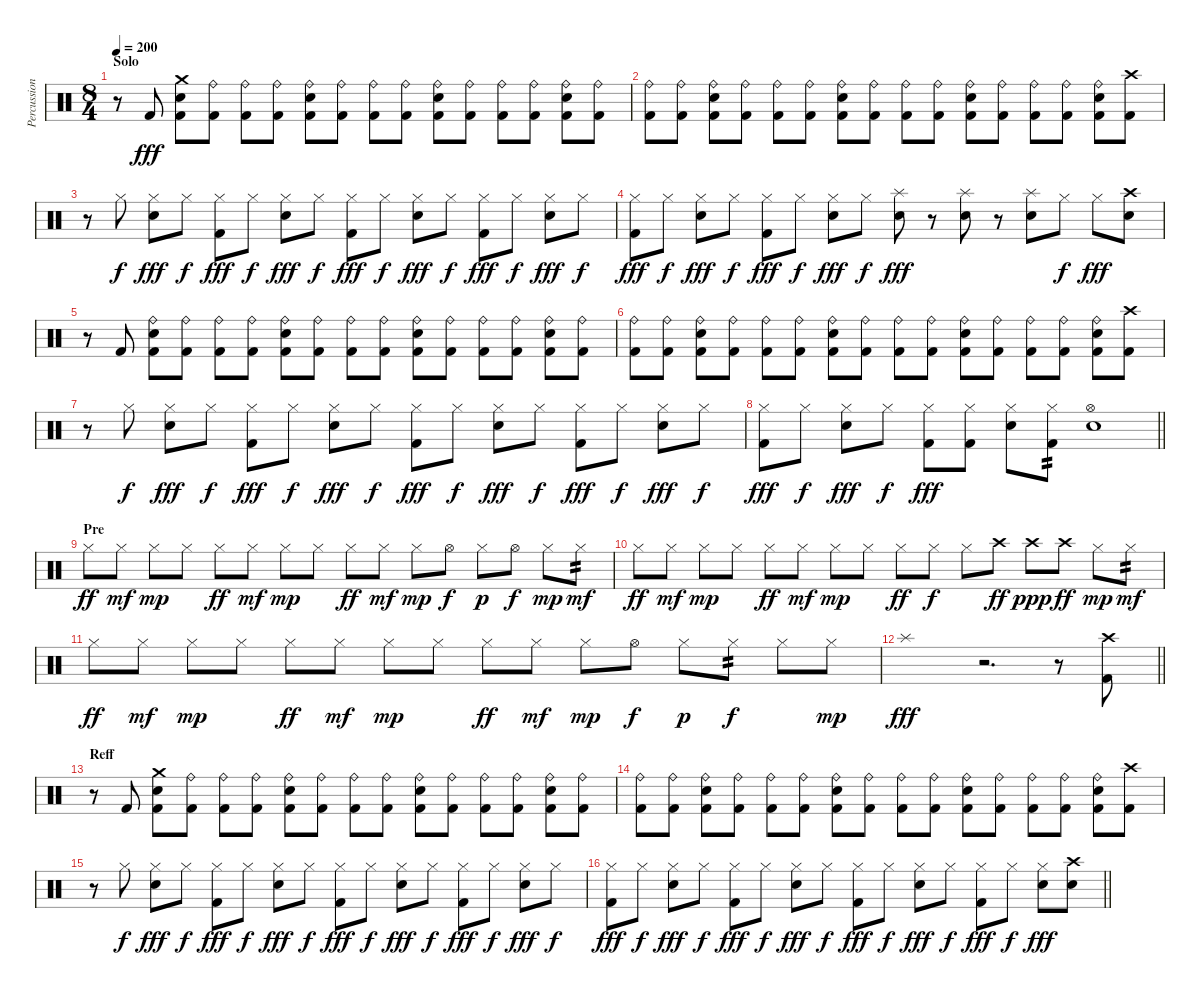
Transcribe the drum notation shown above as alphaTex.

\track ("Percussion" "Percussion") {instrument percussion}
\staff {score}
\articulation defaults
\ts (8 4)
\section ("" "Solo")
\tempo 200
\clef neutral
\ks c
r.8{dy fff} "Kick (hit) 2".8 ("Crash medium (hit)" "Electric Snare (hit)" "Kick (hit) 2").8 ("Ride (bell)" "Kick (hit) 2").8 ("Ride (bell)" "Kick (hit) 2").8 ("Ride (bell)" "Kick (hit) 2").8 ("Ride (bell)" "Electric Snare (hit)" "Kick (hit) 2").8 ("Ride (bell)" "Kick (hit) 2").8 ("Ride (bell)" "Kick (hit) 2").8 ("Ride (bell)" "Kick (hit) 2").8 ("Ride (bell)" "Electric Snare (hit)" "Kick (hit) 2").8 ("Ride (bell)" "Kick (hit) 2").8 ("Ride (bell)" "Kick (hit) 2").8 ("Ride (bell)" "Kick (hit) 2").8 ("Ride (bell)" "Electric Snare (hit)" "Kick (hit) 2").8 ("Ride (bell)" "Kick (hit) 2").8 |
("Ride (bell)" "Kick (hit) 2").8 ("Ride (bell)" "Kick (hit) 2").8 ("Ride (bell)" "Electric Snare (hit)" "Kick (hit) 2").8 ("Ride (bell)" "Kick (hit) 2").8 ("Ride (bell)" "Kick (hit) 2").8 ("Ride (bell)" "Kick (hit) 2").8 ("Ride (bell)" "Electric Snare (hit)" "Kick (hit) 2").8 ("Ride (bell)" "Kick (hit) 2").8 ("Ride (bell)" "Kick (hit) 2").8 ("Ride (bell)" "Kick (hit) 2").8 ("Ride (bell)" "Electric Snare (hit)" "Kick (hit) 2").8 ("Ride (bell)" "Kick (hit) 2").8 ("Ride (bell)" "Kick (hit) 2").8 ("Ride (bell)" "Kick (hit) 2").8 ("Ride (bell)" "Electric Snare (hit)" "Kick (hit) 2").8 ("Crash high (hit)" "Kick (hit) 2").8 |
r.8 "Hi-Hat (closed)".8{dy f} ("Hi-Hat (closed)" "Electric Snare (hit)").8{dy fff} "Hi-Hat (closed)".8{dy f} ("Hi-Hat (closed)" "Kick (hit) 2").8{dy fff} "Hi-Hat (closed)".8{dy f} ("Hi-Hat (closed)" "Electric Snare (hit)").8{dy fff} "Hi-Hat (closed)".8{dy f} ("Hi-Hat (closed)" "Kick (hit) 2").8{dy fff} "Hi-Hat (closed)".8{dy f} ("Hi-Hat (closed)" "Electric Snare (hit)").8{dy fff} "Hi-Hat (closed)".8{dy f} ("Hi-Hat (closed)" "Kick (hit) 2").8{dy fff} "Hi-Hat (closed)".8{dy f} ("Hi-Hat (closed)" "Electric Snare (hit)").8{dy fff} "Hi-Hat (closed)".8{dy f} |
("Hi-Hat (closed)" "Kick (hit) 2").8{dy fff} "Hi-Hat (closed)".8{dy f} ("Hi-Hat (closed)" "Electric Snare (hit)").8{dy fff} "Hi-Hat (closed)".8{dy f} ("Hi-Hat (closed)" "Kick (hit) 2").8{dy fff} "Hi-Hat (closed)".8{dy f} ("Hi-Hat (closed)" "Electric Snare (hit)").8{dy fff} "Hi-Hat (closed)".8{dy f} ("Splash (hit)" "Electric Snare (hit)").8{dy fff} r.8 ("Splash (hit)" "Electric Snare (hit)").8 r.8 ("Splash (hit)" "Electric Snare (hit)").8 "Hi-Hat (closed)".8{dy f} "Hi-Hat (closed)".8{dy fff} ("Crash high (hit)" "Electric Snare (hit)").8 |
r.8 "Kick (hit) 2".8 ("Ride (bell)" "Electric Snare (hit)" "Kick (hit) 2").8 ("Ride (bell)" "Kick (hit) 2").8 ("Ride (bell)" "Kick (hit) 2").8 ("Ride (bell)" "Kick (hit) 2").8 ("Ride (bell)" "Electric Snare (hit)" "Kick (hit) 2").8 ("Ride (bell)" "Kick (hit) 2").8 ("Ride (bell)" "Kick (hit) 2").8 ("Ride (bell)" "Kick (hit) 2").8 ("Ride (bell)" "Electric Snare (hit)" "Kick (hit) 2").8 ("Ride (bell)" "Kick (hit) 2").8 ("Ride (bell)" "Kick (hit) 2").8 ("Ride (bell)" "Kick (hit) 2").8 ("Ride (bell)" "Electric Snare (hit)" "Kick (hit) 2").8 ("Ride (bell)" "Kick (hit) 2").8 |
("Ride (bell)" "Kick (hit) 2").8 ("Ride (bell)" "Kick (hit) 2").8 ("Ride (bell)" "Electric Snare (hit)" "Kick (hit) 2").8 ("Ride (bell)" "Kick (hit) 2").8 ("Ride (bell)" "Kick (hit) 2").8 ("Ride (bell)" "Kick (hit) 2").8 ("Ride (bell)" "Electric Snare (hit)" "Kick (hit) 2").8 ("Ride (bell)" "Kick (hit) 2").8 ("Ride (bell)" "Kick (hit) 2").8 ("Ride (bell)" "Kick (hit) 2").8 ("Ride (bell)" "Electric Snare (hit)" "Kick (hit) 2").8 ("Ride (bell)" "Kick (hit) 2").8 ("Ride (bell)" "Kick (hit) 2").8 ("Ride (bell)" "Kick (hit) 2").8 ("Ride (bell)" "Electric Snare (hit)" "Kick (hit) 2").8 ("Crash high (hit)" "Kick (hit) 2").8 |
r.8 "Hi-Hat (closed)".8{dy f} ("Hi-Hat (closed)" "Electric Snare (hit)").8{dy fff} "Hi-Hat (closed)".8{dy f} ("Hi-Hat (closed)" "Kick (hit) 2").8{dy fff} "Hi-Hat (closed)".8{dy f} ("Hi-Hat (closed)" "Electric Snare (hit)").8{dy fff} "Hi-Hat (closed)".8{dy f} ("Hi-Hat (closed)" "Kick (hit) 2").8{dy fff} "Hi-Hat (closed)".8{dy f} ("Hi-Hat (closed)" "Electric Snare (hit)").8{dy fff} "Hi-Hat (closed)".8{dy f} ("Hi-Hat (closed)" "Kick (hit) 2").8{dy fff} "Hi-Hat (closed)".8{dy f} ("Hi-Hat (closed)" "Electric Snare (hit)").8{dy fff} "Hi-Hat (closed)".8{dy f} |
\barLineRight lightlight
("Hi-Hat (closed)" "Kick (hit) 2").8{dy fff} "Hi-Hat (closed)".8{dy f} ("Hi-Hat (closed)" "Electric Snare (hit)").8{dy fff} "Hi-Hat (closed)".8{dy f} ("Hi-Hat (closed)" "Kick (hit) 2").8{dy fff} ("Hi-Hat (closed)" "Kick (hit) 2").8 ("Hi-Hat (closed)" "Electric Snare (hit)").8 ("Hi-Hat (closed)" "Kick (hit) 2").8{tp 2} ("Hi-Hat (open)" "Electric Snare (hit)").1 |
\section ("" "Pre")
"Hi-Hat (closed)".8{dy ff} "Hi-Hat (closed)".8{dy mf} "Hi-Hat (closed)".8{dy mp} "Hi-Hat (closed)".8 "Hi-Hat (closed)".8{dy ff} "Hi-Hat (closed)".8{dy mf} "Hi-Hat (closed)".8{dy mp} "Hi-Hat (closed)".8 "Hi-Hat (closed)".8{dy ff} "Hi-Hat (closed)".8{dy mf} "Hi-Hat (closed)".8{dy mp} "Hi-Hat (open)".8{dy f} "Hi-Hat (closed)".8{dy p} "Hi-Hat (open)".8{dy f} "Hi-Hat (closed)".8{dy mp} "Hi-Hat (closed)".8{tp 2 dy mf} |
"Hi-Hat (closed)".8{dy ff} "Hi-Hat (closed)".8{dy mf} "Hi-Hat (closed)".8{dy mp} "Hi-Hat (closed)".8 "Hi-Hat (closed)".8{dy ff} "Hi-Hat (closed)".8{dy mf} "Hi-Hat (closed)".8{dy mp} "Hi-Hat (closed)".8 "Hi-Hat (closed)".8{dy ff} "Hi-Hat (closed)".8{dy f} "Hi-Hat (closed)".8 "Crash high (hit)".8{dy ff} "Crash high (hit)".8{dy ppp} "Crash high (hit)".8{dy ff} "Hi-Hat (closed)".8{dy mp} "Hi-Hat (closed)".8{tp 2 dy mf} |
"Hi-Hat (closed)".8{dy ff} "Hi-Hat (closed)".8{dy mf} "Hi-Hat (closed)".8{dy mp} "Hi-Hat (closed)".8 "Hi-Hat (closed)".8{dy ff} "Hi-Hat (closed)".8{dy mf} "Hi-Hat (closed)".8{dy mp} "Hi-Hat (closed)".8 "Hi-Hat (closed)".8{dy ff} "Hi-Hat (closed)".8{dy mf} "Hi-Hat (closed)".8{dy mp} "Hi-Hat (open)".8{dy f} "Hi-Hat (closed)".8{dy p} "Hi-Hat (closed)".8{tp 2 dy f} "Hi-Hat (closed)".8 "Hi-Hat (closed)".8{dy mp} |
\barLineRight lightlight "Splash (hit)".1{dy fff}
r.2{d} r.8 ("Crash high (hit)" "Kick (hit) 2").8 |
\section ("" "Reff")
r.8 "Kick (hit) 2".8 ("Crash medium (hit)" "Electric Snare (hit)" "Kick (hit) 2").8 ("Ride (bell)" "Kick (hit) 2").8 ("Ride (bell)" "Kick (hit) 2").8 ("Ride (bell)" "Kick (hit) 2").8 ("Ride (bell)" "Electric Snare (hit)" "Kick (hit) 2").8 ("Ride (bell)" "Kick (hit) 2").8 ("Ride (bell)" "Kick (hit) 2").8 ("Ride (bell)" "Kick (hit) 2").8 ("Ride (bell)" "Electric Snare (hit)" "Kick (hit) 2").8 ("Ride (bell)" "Kick (hit) 2").8 ("Ride (bell)" "Kick (hit) 2").8 ("Ride (bell)" "Kick (hit) 2").8 ("Ride (bell)" "Electric Snare (hit)" "Kick (hit) 2").8 ("Ride (bell)" "Kick (hit) 2").8 |
("Ride (bell)" "Kick (hit) 2").8 ("Ride (bell)" "Kick (hit) 2").8 ("Ride (bell)" "Electric Snare (hit)" "Kick (hit) 2").8 ("Ride (bell)" "Kick (hit) 2").8 ("Ride (bell)" "Kick (hit) 2").8 ("Ride (bell)" "Kick (hit) 2").8 ("Ride (bell)" "Electric Snare (hit)" "Kick (hit) 2").8 ("Ride (bell)" "Kick (hit) 2").8 ("Ride (bell)" "Kick (hit) 2").8 ("Ride (bell)" "Kick (hit) 2").8 ("Ride (bell)" "Electric Snare (hit)" "Kick (hit) 2").8 ("Ride (bell)" "Kick (hit) 2").8 ("Ride (bell)" "Kick (hit) 2").8 ("Ride (bell)" "Kick (hit) 2").8 ("Ride (bell)" "Electric Snare (hit)" "Kick (hit) 2").8 ("Crash high (hit)" "Kick (hit) 2").8 |
r.8 "Hi-Hat (closed)".8{dy f} ("Hi-Hat (closed)" "Electric Snare (hit)").8{dy fff} "Hi-Hat (closed)".8{dy f} ("Hi-Hat (closed)" "Kick (hit) 2").8{dy fff} "Hi-Hat (closed)".8{dy f} ("Hi-Hat (closed)" "Electric Snare (hit)").8{dy fff} "Hi-Hat (closed)".8{dy f} ("Hi-Hat (closed)" "Kick (hit) 2").8{dy fff} "Hi-Hat (closed)".8{dy f} ("Hi-Hat (closed)" "Electric Snare (hit)").8{dy fff} "Hi-Hat (closed)".8{dy f} ("Hi-Hat (closed)" "Kick (hit) 2").8{dy fff} "Hi-Hat (closed)".8{dy f} ("Hi-Hat (closed)" "Electric Snare (hit)").8{dy fff} "Hi-Hat (closed)".8{dy f} |
\barLineRight lightlight
("Hi-Hat (closed)" "Kick (hit) 2").8{dy fff} "Hi-Hat (closed)".8{dy f} ("Hi-Hat (closed)" "Electric Snare (hit)").8{dy fff} "Hi-Hat (closed)".8{dy f} ("Hi-Hat (closed)" "Kick (hit) 2").8{dy fff} "Hi-Hat (closed)".8{dy f} ("Hi-Hat (closed)" "Electric Snare (hit)").8{dy fff} "Hi-Hat (closed)".8{dy f} ("Hi-Hat (closed)" "Kick (hit) 2").8{dy fff} "Hi-Hat (closed)".8{dy f} ("Hi-Hat (closed)" "Electric Snare (hit)").8{dy fff} "Hi-Hat (closed)".8{dy f} ("Hi-Hat (closed)" "Kick (hit) 2").8{dy fff} "Hi-Hat (closed)".8{dy f} ("Hi-Hat (closed)" "Electric Snare (hit)").8{dy fff} ("Crash high (hit)" "Electric Snare (hit)").8
